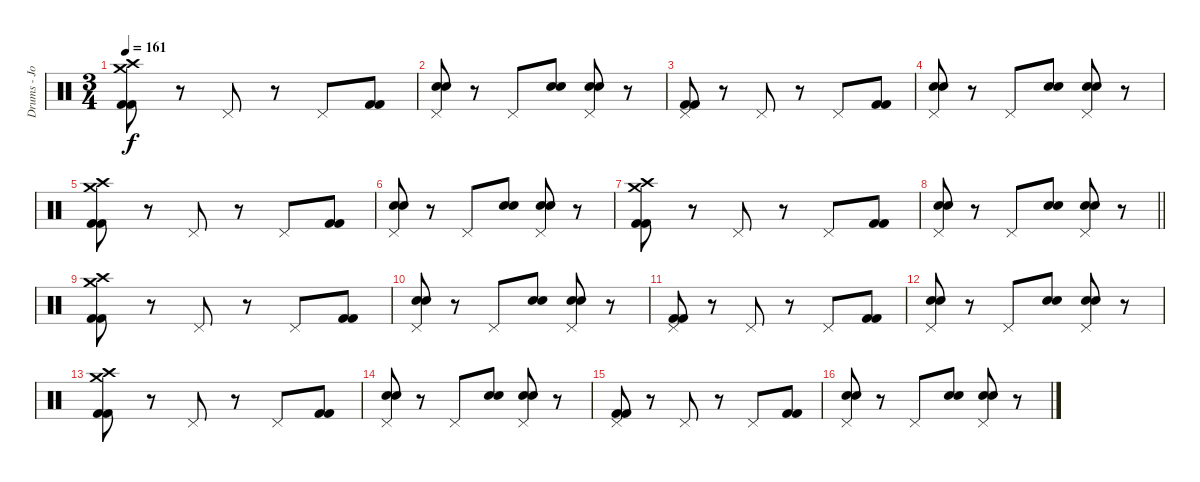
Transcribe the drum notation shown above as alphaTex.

\track ("Drums - Jon Wilkes" "Drums - Jo") {instrument percussion}
\staff {score}
\articulation defaults
\ts (3 4)
\tempo 161
\clef neutral
\ks c
("Crash medium (hit)" "Crash high (hit)" "Kick (hit) 2" "Kick (hit) 2").8{dy f} r.8 "Pedal Hi-Hat (hit)".8 r.8 "Pedal Hi-Hat (hit)".8 ("Kick (hit) 2" "Kick (hit) 2").8 |
("Pedal Hi-Hat (hit)" "Electric Snare (hit)" "Electric Snare (hit)").8 r.8 "Pedal Hi-Hat (hit)".8 ("Electric Snare (hit)" "Electric Snare (hit)").8 ("Pedal Hi-Hat (hit)" "Electric Snare (hit)" "Electric Snare (hit)").8 r.8 |
("Pedal Hi-Hat (hit)" "Kick (hit) 2" "Kick (hit) 2").8 r.8 "Pedal Hi-Hat (hit)".8 r.8 "Pedal Hi-Hat (hit)".8 ("Kick (hit) 2" "Kick (hit) 2").8 |
("Pedal Hi-Hat (hit)" "Electric Snare (hit)" "Electric Snare (hit)").8 r.8 "Pedal Hi-Hat (hit)".8 ("Electric Snare (hit)" "Electric Snare (hit)").8 ("Pedal Hi-Hat (hit)" "Electric Snare (hit)" "Electric Snare (hit)").8 r.8 |
("Crash medium (hit)" "Crash high (hit)" "Kick (hit) 2" "Kick (hit) 2").8 r.8 "Pedal Hi-Hat (hit)".8 r.8 "Pedal Hi-Hat (hit)".8 ("Kick (hit) 2" "Kick (hit) 2").8 |
("Pedal Hi-Hat (hit)" "Electric Snare (hit)" "Electric Snare (hit)").8 r.8 "Pedal Hi-Hat (hit)".8 ("Electric Snare (hit)" "Electric Snare (hit)").8 ("Pedal Hi-Hat (hit)" "Electric Snare (hit)" "Electric Snare (hit)").8 r.8 |
("Crash medium (hit)" "Crash high (hit)" "Kick (hit) 2" "Kick (hit) 2").8 r.8 "Pedal Hi-Hat (hit)".8 r.8 "Pedal Hi-Hat (hit)".8 ("Kick (hit) 2" "Kick (hit) 2").8 |
\barLineRight lightlight
("Pedal Hi-Hat (hit)" "Electric Snare (hit)" "Electric Snare (hit)").8 r.8 "Pedal Hi-Hat (hit)".8 ("Electric Snare (hit)" "Electric Snare (hit)").8 ("Pedal Hi-Hat (hit)" "Electric Snare (hit)" "Electric Snare (hit)").8 r.8 |
("Crash medium (hit)" "Crash high (hit)" "Kick (hit) 2" "Kick (hit) 2").8 r.8 "Pedal Hi-Hat (hit)".8 r.8 "Pedal Hi-Hat (hit)".8 ("Kick (hit) 2" "Kick (hit) 2").8 |
("Pedal Hi-Hat (hit)" "Electric Snare (hit)" "Electric Snare (hit)").8 r.8 "Pedal Hi-Hat (hit)".8 ("Electric Snare (hit)" "Electric Snare (hit)").8 ("Pedal Hi-Hat (hit)" "Electric Snare (hit)" "Electric Snare (hit)").8 r.8 |
("Pedal Hi-Hat (hit)" "Kick (hit) 2" "Kick (hit) 2").8 r.8 "Pedal Hi-Hat (hit)".8 r.8 "Pedal Hi-Hat (hit)".8 ("Kick (hit) 2" "Kick (hit) 2").8 |
("Pedal Hi-Hat (hit)" "Electric Snare (hit)" "Electric Snare (hit)").8 r.8 "Pedal Hi-Hat (hit)".8 ("Electric Snare (hit)" "Electric Snare (hit)").8 ("Pedal Hi-Hat (hit)" "Electric Snare (hit)" "Electric Snare (hit)").8 r.8 |
("Crash medium (hit)" "Crash high (hit)" "Kick (hit) 2" "Kick (hit) 2").8 r.8 "Pedal Hi-Hat (hit)".8 r.8 "Pedal Hi-Hat (hit)".8 ("Kick (hit) 2" "Kick (hit) 2").8 |
("Pedal Hi-Hat (hit)" "Electric Snare (hit)" "Electric Snare (hit)").8 r.8 "Pedal Hi-Hat (hit)".8 ("Electric Snare (hit)" "Electric Snare (hit)").8 ("Pedal Hi-Hat (hit)" "Electric Snare (hit)" "Electric Snare (hit)").8 r.8 |
("Pedal Hi-Hat (hit)" "Kick (hit) 2" "Kick (hit) 2").8 r.8 "Pedal Hi-Hat (hit)".8 r.8 "Pedal Hi-Hat (hit)".8 ("Kick (hit) 2" "Kick (hit) 2").8 |
("Pedal Hi-Hat (hit)" "Electric Snare (hit)" "Electric Snare (hit)").8 r.8 "Pedal Hi-Hat (hit)".8 ("Electric Snare (hit)" "Electric Snare (hit)").8 ("Pedal Hi-Hat (hit)" "Electric Snare (hit)" "Electric Snare (hit)").8 r.8
